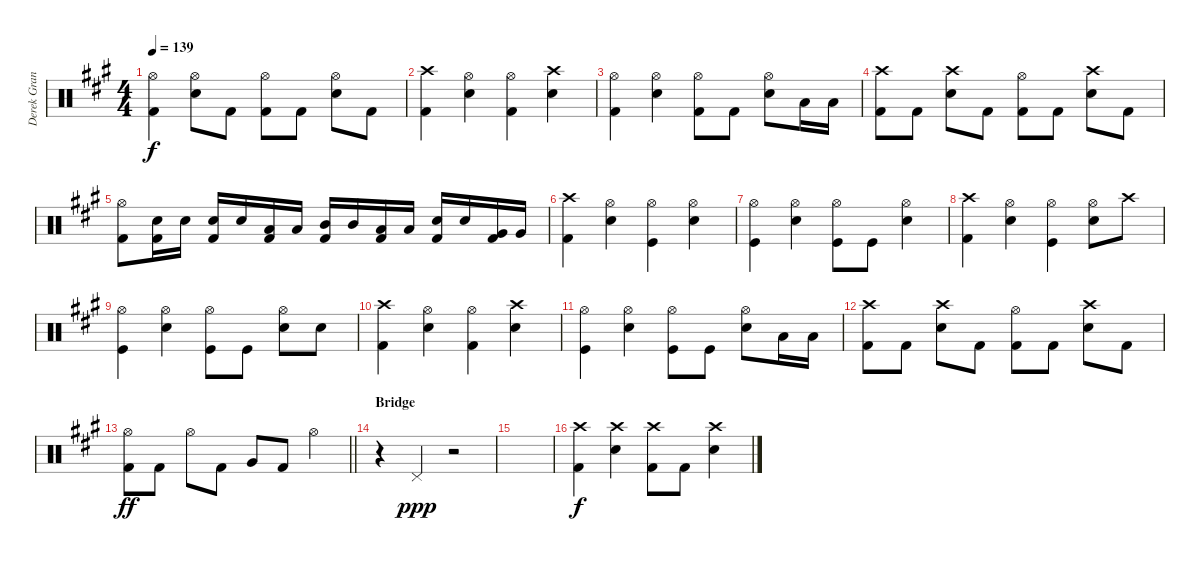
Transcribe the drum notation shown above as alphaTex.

\track ("Derek Grant - Drums" "Derek Gran") {instrument percussion}
\staff {score}
\articulation defaults
\ts (4 4)
\tempo 139
\clef neutral
\ks a
("Kick (hit) 2" "Hi-Hat (open)").4{dy f} ("Snare (hit) 2" "Hi-Hat (open)").8 "Kick (hit) 2".8 ("Kick (hit) 2" "Hi-Hat (open)").8 "Kick (hit) 2".8 ("Snare (hit) 2" "Hi-Hat (open)").8 "Kick (hit) 2".8 |
("Crash high (hit)" "Kick (hit) 2").4 ("Snare (hit) 2" "Hi-Hat (open)").4 ("Kick (hit) 2" "Hi-Hat (open)").4 ("Snare (hit) 2" "Crash high (hit)").4 |
("Kick (hit) 2" "Hi-Hat (open)").4 ("Snare (hit) 2" "Hi-Hat (open)").4 ("Kick (hit) 2" "Hi-Hat (open)").8 "Kick (hit) 2".8 ("Snare (hit) 2" "Hi-Hat (open)").8 "Low Tom (hit)".16 "Low Tom (hit)".16 |
("Kick (hit) 2" "Crash high (hit)").8 "Kick (hit) 2".8 ("Snare (hit) 2" "Crash high (hit)").8 "Kick (hit) 2".8 ("Kick (hit) 2" "Hi-Hat (open)").8 "Kick (hit) 2".8 ("Snare (hit) 2" "Crash high (hit)").8 "Kick (hit) 2".8 |
("Kick (hit) 2" "Hi-Hat (open)").8 ("Snare (hit) 2" "Kick (hit) 2").16 "Snare (hit) 2".16 ("Snare (hit) 2" "Kick (hit) 2").16 "Snare (hit) 2".16 ("Low Tom (hit)" "Kick (hit) 2").16 "Low Tom (hit)".16 ("Mid Tom (hit)" "Kick (hit) 2").16 "Mid Tom (hit)".16 ("Low Tom (hit)" "Kick (hit) 2").16 "Low Tom (hit)".16 ("Snare (hit) 2" "Kick (hit) 2").16 "Snare (hit) 2".16 ("Very Low Tom (hit)" "Kick (hit) 2").16 "Very Low Tom (hit)".16 |
("Crash high (hit)" "Kick (hit) 2").4 ("Snare (hit) 2" "Hi-Hat (open)").4 ("Hi-Hat (open)" "Kick (hit)").4 ("Hi-Hat (open)" "Snare (hit) 2").4 |
("Hi-Hat (open)" "Kick (hit)").4 ("Hi-Hat (open)" "Snare (hit) 2").4 ("Hi-Hat (open)" "Kick (hit)").8 "Kick (hit)".8 ("Hi-Hat (open)" "Snare (hit) 2").4 |
("Crash high (hit)" "Kick (hit) 2").4 ("Snare (hit) 2" "Hi-Hat (open)").4 ("Hi-Hat (open)" "Kick (hit)").4 ("Hi-Hat (open)" "Snare (hit) 2").8 "Crash high (hit)".8 |
("Hi-Hat (open)" "Kick (hit)").4 ("Hi-Hat (open)" "Snare (hit) 2").4 ("Hi-Hat (open)" "Kick (hit)").8 "Kick (hit)".8 ("Hi-Hat (open)" "Snare (hit) 2").8 "Snare (hit) 2".8 |
("Crash high (hit)" "Kick (hit) 2").4 ("Snare (hit) 2" "Hi-Hat (open)").4 ("Hi-Hat (open)" "Kick (hit) 2").4 ("Crash high (hit)" "Snare (hit) 2").4 |
("Hi-Hat (open)" "Kick (hit)").4 ("Hi-Hat (open)" "Snare (hit) 2").4 ("Hi-Hat (open)" "Kick (hit)").8 "Kick (hit)".8 ("Hi-Hat (open)" "Snare (hit) 2").8 "Low Tom (hit)".16 "Low Tom (hit)".16 |
("Kick (hit) 2" "Crash high (hit)").8 "Kick (hit) 2".8 ("Snare (hit) 2" "Crash high (hit)").8 "Kick (hit) 2".8 ("Kick (hit) 2" "Hi-Hat (open)").8 "Kick (hit) 2".8 ("Snare (hit) 2" "Crash high (hit)").8 "Kick (hit) 2".8 |
\barLineRight lightlight
("Kick (hit) 2" "Hi-Hat (open)").8{dy ff} "Kick (hit) 2".8 "Hi-Hat (open)".8 "Kick (hit) 2".8 "Very Low Tom (hit)".8 "Kick (hit) 2".8 "Hi-Hat (open)".4 |
\section ("" "Bridge")
r.4 "Pedal Hi-Hat (hit)".4{dy ppp} r.2 |
|
("Kick (hit) 2" "Crash high (hit)").4{dy f} ("Snare (hit) 2" "Crash high (hit)").4 ("Kick (hit) 2" "Crash high (hit)").8 "Kick (hit) 2".8 ("Snare (hit) 2" "Crash high (hit)").4
